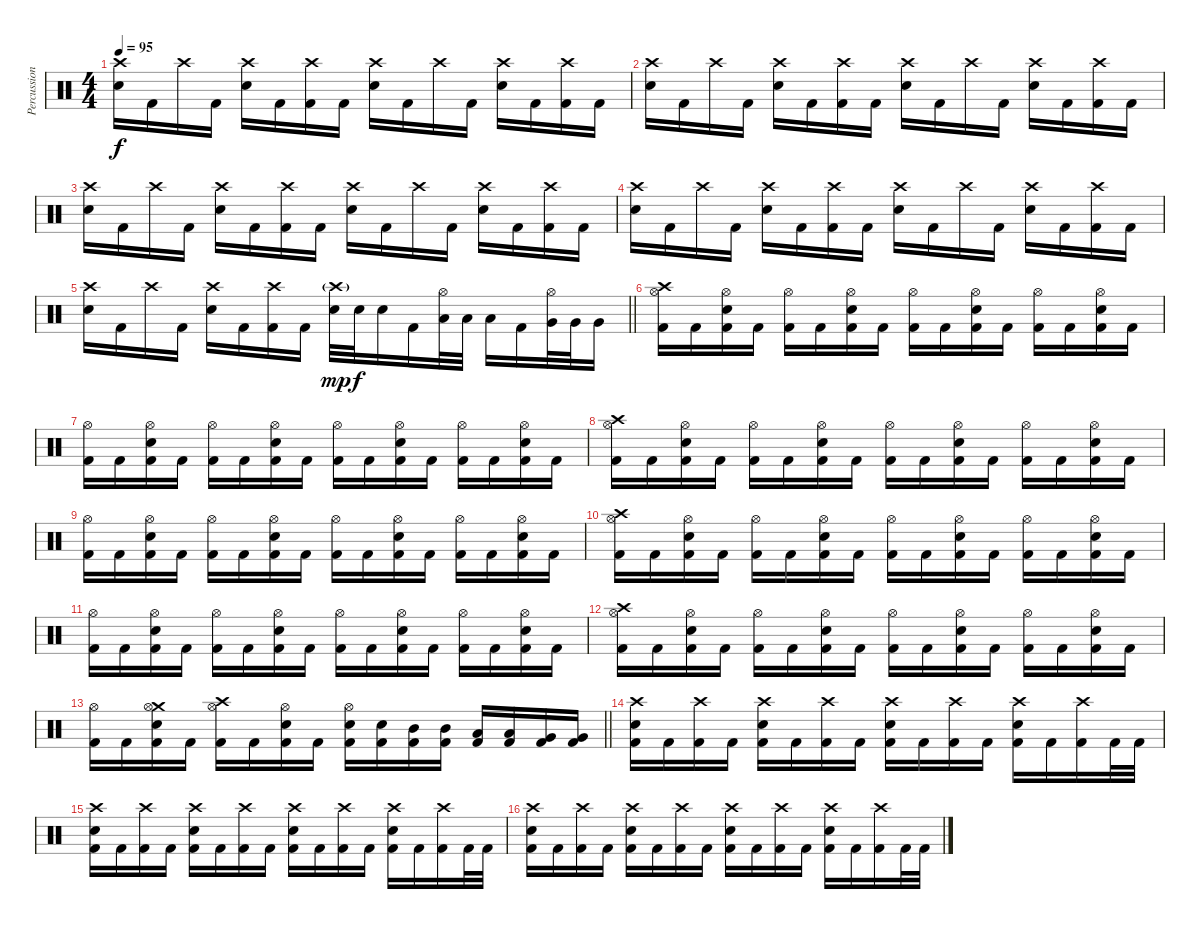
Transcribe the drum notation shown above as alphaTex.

\track ("Percussion" "Percussion") {instrument percussion}
\staff {score}
\articulation defaults
\ts (4 4)
\tempo 95
\clef neutral
\ks c
("Crash high (hit)" "Snare (hit) 2").16{dy f} "Kick (hit) 2".16 "Crash high (hit)".16 "Kick (hit) 2".16 ("Crash high (hit)" "Snare (hit) 2").16 "Kick (hit) 2".16 ("Crash high (hit)" "Kick (hit) 2").16 "Kick (hit) 2".16 ("Crash high (hit)" "Snare (hit) 2").16 "Kick (hit) 2".16 "Crash high (hit)".16 "Kick (hit) 2".16 ("Crash high (hit)" "Snare (hit) 2").16 "Kick (hit) 2".16 ("Crash high (hit)" "Kick (hit) 2").16 "Kick (hit) 2".16 |
("Crash high (hit)" "Snare (hit) 2").16 "Kick (hit) 2".16 "Crash high (hit)".16 "Kick (hit) 2".16 ("Crash high (hit)" "Snare (hit) 2").16 "Kick (hit) 2".16 ("Crash high (hit)" "Kick (hit) 2").16 "Kick (hit) 2".16 ("Crash high (hit)" "Snare (hit) 2").16 "Kick (hit) 2".16 "Crash high (hit)".16 "Kick (hit) 2".16 ("Crash high (hit)" "Snare (hit) 2").16 "Kick (hit) 2".16 ("Crash high (hit)" "Kick (hit) 2").16 "Kick (hit) 2".16 |
("Crash high (hit)" "Snare (hit) 2").16 "Kick (hit) 2".16 "Crash high (hit)".16 "Kick (hit) 2".16 ("Crash high (hit)" "Snare (hit) 2").16 "Kick (hit) 2".16 ("Crash high (hit)" "Kick (hit) 2").16 "Kick (hit) 2".16 ("Crash high (hit)" "Snare (hit) 2").16 "Kick (hit) 2".16 "Crash high (hit)".16 "Kick (hit) 2".16 ("Crash high (hit)" "Snare (hit) 2").16 "Kick (hit) 2".16 ("Crash high (hit)" "Kick (hit) 2").16 "Kick (hit) 2".16 |
("Crash high (hit)" "Snare (hit) 2").16 "Kick (hit) 2".16 "Crash high (hit)".16 "Kick (hit) 2".16 ("Crash high (hit)" "Snare (hit) 2").16 "Kick (hit) 2".16 ("Crash high (hit)" "Kick (hit) 2").16 "Kick (hit) 2".16 ("Crash high (hit)" "Snare (hit) 2").16 "Kick (hit) 2".16 "Crash high (hit)".16 "Kick (hit) 2".16 ("Crash high (hit)" "Snare (hit) 2").16 "Kick (hit) 2".16 ("Crash high (hit)" "Kick (hit) 2").16 "Kick (hit) 2".16 |
\barLineRight lightlight
("Crash high (hit)" "Snare (hit) 2").16 "Kick (hit) 2".16 "Crash high (hit)".16 "Kick (hit) 2".16 ("Crash high (hit)" "Snare (hit) 2").16 "Kick (hit) 2".16 ("Crash high (hit)" "Kick (hit) 2").16 "Kick (hit) 2".16 ("Crash high (hit)"{g} "Snare (hit) 2").32{dy mp} "Snare (hit) 2".32{dy f} "Snare (hit) 2".16 "Kick (hit) 2".16 ("Hi-Hat (open)" "Low Tom (hit)").32 "Low Tom (hit)".32 "Low Tom (hit)".16 "Kick (hit) 2".16 ("Hi-Hat (open)" "Very Low Tom (hit)").32 "Very Low Tom (hit)".32 "Very Low Tom (hit)".16 |
("Crash high (hit)" "Hi-Hat (open)" "Kick (hit) 2").16 "Kick (hit) 2".16 ("Hi-Hat (open)" "Snare (hit) 2" "Kick (hit) 2").16 "Kick (hit) 2".16 ("Hi-Hat (open)" "Kick (hit) 2").16 "Kick (hit) 2".16 ("Hi-Hat (open)" "Snare (hit) 2" "Kick (hit) 2").16 "Kick (hit) 2".16 ("Hi-Hat (open)" "Kick (hit) 2").16 "Kick (hit) 2".16 ("Hi-Hat (open)" "Snare (hit) 2" "Kick (hit) 2").16 "Kick (hit) 2".16 ("Hi-Hat (open)" "Kick (hit) 2").16 "Kick (hit) 2".16 ("Hi-Hat (open)" "Snare (hit) 2" "Kick (hit) 2").16 "Kick (hit) 2".16 |
("Hi-Hat (open)" "Kick (hit) 2").16 "Kick (hit) 2".16 ("Hi-Hat (open)" "Snare (hit) 2" "Kick (hit) 2").16 "Kick (hit) 2".16 ("Hi-Hat (open)" "Kick (hit) 2").16 "Kick (hit) 2".16 ("Hi-Hat (open)" "Snare (hit) 2" "Kick (hit) 2").16 "Kick (hit) 2".16 ("Hi-Hat (open)" "Kick (hit) 2").16 "Kick (hit) 2".16 ("Hi-Hat (open)" "Snare (hit) 2" "Kick (hit) 2").16 "Kick (hit) 2".16 ("Hi-Hat (open)" "Kick (hit) 2").16 "Kick (hit) 2".16 ("Hi-Hat (open)" "Snare (hit) 2" "Kick (hit) 2").16 "Kick (hit) 2".16 |
("Crash high (hit)" "Hi-Hat (open)" "Kick (hit) 2").16 "Kick (hit) 2".16 ("Hi-Hat (open)" "Snare (hit) 2" "Kick (hit) 2").16 "Kick (hit) 2".16 ("Hi-Hat (open)" "Kick (hit) 2").16 "Kick (hit) 2".16 ("Hi-Hat (open)" "Snare (hit) 2" "Kick (hit) 2").16 "Kick (hit) 2".16 ("Hi-Hat (open)" "Kick (hit) 2").16 "Kick (hit) 2".16 ("Hi-Hat (open)" "Snare (hit) 2" "Kick (hit) 2").16 "Kick (hit) 2".16 ("Hi-Hat (open)" "Kick (hit) 2").16 "Kick (hit) 2".16 ("Hi-Hat (open)" "Snare (hit) 2" "Kick (hit) 2").16 "Kick (hit) 2".16 |
("Hi-Hat (open)" "Kick (hit) 2").16 "Kick (hit) 2".16 ("Hi-Hat (open)" "Snare (hit) 2" "Kick (hit) 2").16 "Kick (hit) 2".16 ("Hi-Hat (open)" "Kick (hit) 2").16 "Kick (hit) 2".16 ("Hi-Hat (open)" "Snare (hit) 2" "Kick (hit) 2").16 "Kick (hit) 2".16 ("Hi-Hat (open)" "Kick (hit) 2").16 "Kick (hit) 2".16 ("Hi-Hat (open)" "Snare (hit) 2" "Kick (hit) 2").16 "Kick (hit) 2".16 ("Hi-Hat (open)" "Kick (hit) 2").16 "Kick (hit) 2".16 ("Hi-Hat (open)" "Snare (hit) 2" "Kick (hit) 2").16 "Kick (hit) 2".16 |
("Crash high (hit)" "Hi-Hat (open)" "Kick (hit) 2").16 "Kick (hit) 2".16 ("Hi-Hat (open)" "Snare (hit) 2" "Kick (hit) 2").16 "Kick (hit) 2".16 ("Hi-Hat (open)" "Kick (hit) 2").16 "Kick (hit) 2".16 ("Hi-Hat (open)" "Snare (hit) 2" "Kick (hit) 2").16 "Kick (hit) 2".16 ("Hi-Hat (open)" "Kick (hit) 2").16 "Kick (hit) 2".16 ("Hi-Hat (open)" "Snare (hit) 2" "Kick (hit) 2").16 "Kick (hit) 2".16 ("Hi-Hat (open)" "Kick (hit) 2").16 "Kick (hit) 2".16 ("Hi-Hat (open)" "Snare (hit) 2" "Kick (hit) 2").16 "Kick (hit) 2".16 |
("Hi-Hat (open)" "Kick (hit) 2").16 "Kick (hit) 2".16 ("Hi-Hat (open)" "Snare (hit) 2" "Kick (hit) 2").16 "Kick (hit) 2".16 ("Hi-Hat (open)" "Kick (hit) 2").16 "Kick (hit) 2".16 ("Hi-Hat (open)" "Snare (hit) 2" "Kick (hit) 2").16 "Kick (hit) 2".16 ("Hi-Hat (open)" "Kick (hit) 2").16 "Kick (hit) 2".16 ("Hi-Hat (open)" "Snare (hit) 2" "Kick (hit) 2").16 "Kick (hit) 2".16 ("Hi-Hat (open)" "Kick (hit) 2").16 "Kick (hit) 2".16 ("Hi-Hat (open)" "Snare (hit) 2" "Kick (hit) 2").16 "Kick (hit) 2".16 |
("Crash high (hit)" "Hi-Hat (open)" "Kick (hit) 2").16 "Kick (hit) 2".16 ("Hi-Hat (open)" "Snare (hit) 2" "Kick (hit) 2").16 "Kick (hit) 2".16 ("Hi-Hat (open)" "Kick (hit) 2").16 "Kick (hit) 2".16 ("Hi-Hat (open)" "Snare (hit) 2" "Kick (hit) 2").16 "Kick (hit) 2".16 ("Hi-Hat (open)" "Kick (hit) 2").16 "Kick (hit) 2".16 ("Hi-Hat (open)" "Snare (hit) 2" "Kick (hit) 2").16 "Kick (hit) 2".16 ("Hi-Hat (open)" "Kick (hit) 2").16 "Kick (hit) 2".16 ("Hi-Hat (open)" "Snare (hit) 2" "Kick (hit) 2").16 "Kick (hit) 2".16 |
\barLineRight lightlight
("Hi-Hat (open)" "Kick (hit) 2").16 "Kick (hit) 2".16 ("Crash medium (hit)" "Hi-Hat (open)" "Snare (hit) 2" "Kick (hit) 2").16 "Kick (hit) 2".16 ("Crash high (hit)" "Hi-Hat (open)" "Kick (hit) 2").16 "Kick (hit) 2".16 ("Hi-Hat (open)" "Snare (hit) 2" "Kick (hit) 2").16 "Kick (hit) 2".16 ("Hi-Hat (open)" "Snare (hit) 2" "Kick (hit) 2").16 ("Snare (hit) 2" "Kick (hit) 2").16 ("Mid Tom (hit)" "Kick (hit) 2").16 ("Mid Tom (hit)" "Kick (hit) 2").16 ("Low Tom (hit)" "Kick (hit) 2").16 ("Low Tom (hit)" "Kick (hit) 2").16 ("Very Low Tom (hit)" "Kick (hit) 2").16 ("Very Low Tom (hit)" "Kick (hit) 2").16 |
("Crash high (hit)" "Snare (hit) 2" "Kick (hit) 2").16 "Kick (hit) 2".16 ("Crash high (hit)" "Kick (hit) 2").16 "Kick (hit) 2".16 ("Crash high (hit)" "Snare (hit) 2" "Kick (hit) 2").16 "Kick (hit) 2".16 ("Crash high (hit)" "Kick (hit) 2").16 "Kick (hit) 2".16 ("Crash high (hit)" "Snare (hit) 2" "Kick (hit) 2").16 "Kick (hit) 2".16 ("Crash high (hit)" "Kick (hit) 2").16 "Kick (hit) 2".16 ("Crash high (hit)" "Snare (hit) 2" "Kick (hit) 2").16 "Kick (hit) 2".16 ("Crash high (hit)" "Kick (hit) 2").16 "Kick (hit) 2".32 "Kick (hit) 2".32 |
("Crash high (hit)" "Snare (hit) 2" "Kick (hit) 2").16 "Kick (hit) 2".16 ("Crash high (hit)" "Kick (hit) 2").16 "Kick (hit) 2".16 ("Crash high (hit)" "Snare (hit) 2" "Kick (hit) 2").16 "Kick (hit) 2".16 ("Crash high (hit)" "Kick (hit) 2").16 "Kick (hit) 2".16 ("Crash high (hit)" "Snare (hit) 2" "Kick (hit) 2").16 "Kick (hit) 2".16 ("Crash high (hit)" "Kick (hit) 2").16 "Kick (hit) 2".16 ("Crash high (hit)" "Snare (hit) 2" "Kick (hit) 2").16 "Kick (hit) 2".16 ("Crash high (hit)" "Kick (hit) 2").16 "Kick (hit) 2".32 "Kick (hit) 2".32 |
("Crash high (hit)" "Snare (hit) 2" "Kick (hit) 2").16 "Kick (hit) 2".16 ("Crash high (hit)" "Kick (hit) 2").16 "Kick (hit) 2".16 ("Crash high (hit)" "Snare (hit) 2" "Kick (hit) 2").16 "Kick (hit) 2".16 ("Crash high (hit)" "Kick (hit) 2").16 "Kick (hit) 2".16 ("Crash high (hit)" "Snare (hit) 2" "Kick (hit) 2").16 "Kick (hit) 2".16 ("Crash high (hit)" "Kick (hit) 2").16 "Kick (hit) 2".16 ("Crash high (hit)" "Snare (hit) 2" "Kick (hit) 2").16 "Kick (hit) 2".16 ("Crash high (hit)" "Kick (hit) 2").16 "Kick (hit) 2".32 "Kick (hit) 2".32
